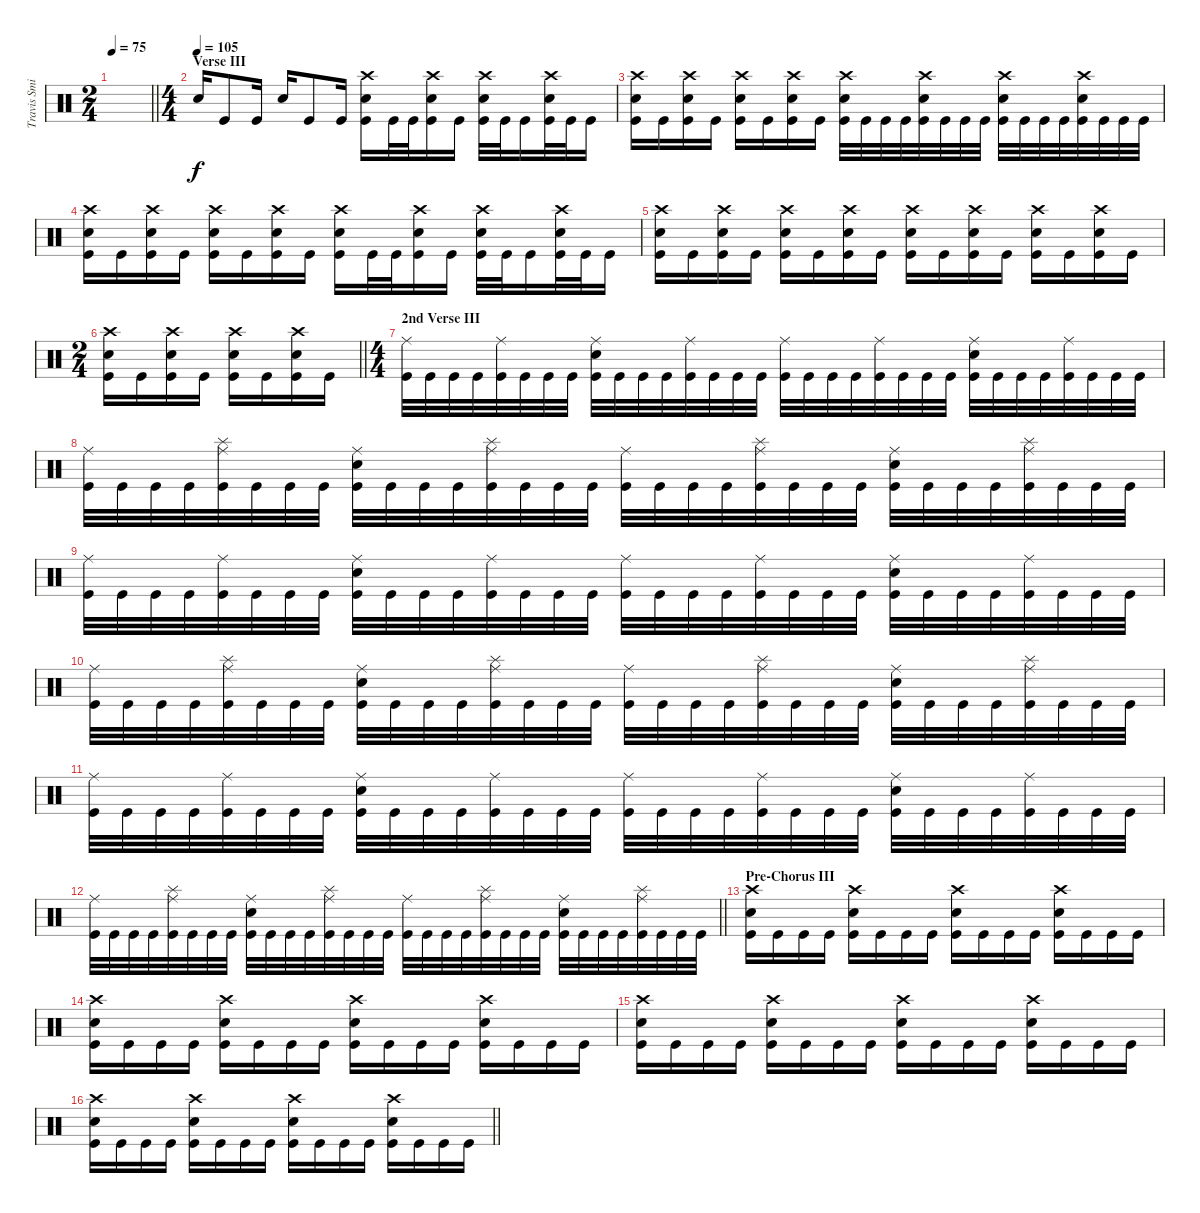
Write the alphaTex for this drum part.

\track ("Travis Smith" "Travis Smi") {instrument percussion}
\staff {score}
\articulation defaults
\ts (2 4)
\tempo 75
\clef neutral
\barLineRight lightlight
\ks c
|
\ts (4 4)
\section ("" "Verse III")
\tempo (105)
"Snare (hit) 2".16 "Kick (hit)".8 "Kick (hit)".16 "Snare (hit) 2".16 "Kick (hit)".8 "Kick (hit)".16 ("Crash high (hit)" "Snare (hit) 2" "Kick (hit)").16 "Kick (hit)".32 "Kick (hit)".32 ("Crash high (hit)" "Snare (hit) 2" "Kick (hit)").16 "Kick (hit)".16 ("Crash high (hit)" "Snare (hit) 2" "Kick (hit)").32 "Kick (hit)".32 "Kick (hit)".16 ("Crash high (hit)" "Snare (hit) 2" "Kick (hit)").32 "Kick (hit)".32 "Kick (hit)".16 |
("Crash high (hit)" "Snare (hit) 2" "Kick (hit)").16 "Kick (hit)".16 ("Crash high (hit)" "Snare (hit) 2" "Kick (hit)").16 "Kick (hit)".16 ("Crash high (hit)" "Snare (hit) 2" "Kick (hit)").16 "Kick (hit)".16 ("Crash high (hit)" "Snare (hit) 2" "Kick (hit)").16 "Kick (hit)".16 ("Crash high (hit)" "Snare (hit) 2" "Kick (hit)").32 "Kick (hit)".32 "Kick (hit)".32 "Kick (hit)".32 ("Crash high (hit)" "Snare (hit) 2" "Kick (hit)").32 "Kick (hit)".32 "Kick (hit)".32 "Kick (hit)".32 ("Crash high (hit)" "Snare (hit) 2" "Kick (hit)").32 "Kick (hit)".32 "Kick (hit)".32 "Kick (hit)".32 ("Crash high (hit)" "Snare (hit) 2" "Kick (hit)").32 "Kick (hit)".32 "Kick (hit)".32 "Kick (hit)".32 |
("Crash high (hit)" "Snare (hit) 2" "Kick (hit)").16 "Kick (hit)".16 ("Crash high (hit)" "Snare (hit) 2" "Kick (hit)").16 "Kick (hit)".16 ("Crash high (hit)" "Snare (hit) 2" "Kick (hit)").16 "Kick (hit)".16 ("Crash high (hit)" "Snare (hit) 2" "Kick (hit)").16 "Kick (hit)".16 ("Crash high (hit)" "Snare (hit) 2" "Kick (hit)").16 "Kick (hit)".32 "Kick (hit)".32 ("Crash high (hit)" "Snare (hit) 2" "Kick (hit)").16 "Kick (hit)".16 ("Crash high (hit)" "Snare (hit) 2" "Kick (hit)").32 "Kick (hit)".32 "Kick (hit)".16 ("Crash high (hit)" "Snare (hit) 2" "Kick (hit)").32 "Kick (hit)".32 "Kick (hit)".16 |
("Crash high (hit)" "Snare (hit) 2" "Kick (hit)").16 "Kick (hit)".16 ("Crash high (hit)" "Snare (hit) 2" "Kick (hit)").16 "Kick (hit)".16 ("Crash high (hit)" "Snare (hit) 2" "Kick (hit)").16 "Kick (hit)".16 ("Crash high (hit)" "Snare (hit) 2" "Kick (hit)").16 "Kick (hit)".16 ("Crash high (hit)" "Snare (hit) 2" "Kick (hit)").16 "Kick (hit)".16 ("Crash high (hit)" "Snare (hit) 2" "Kick (hit)").16 "Kick (hit)".16 ("Crash high (hit)" "Snare (hit) 2" "Kick (hit)").16 "Kick (hit)".16 ("Crash high (hit)" "Snare (hit) 2" "Kick (hit)").16 "Kick (hit)".16 |
\ts (2 4)
\barLineRight lightlight
("Crash high (hit)" "Snare (hit) 2" "Kick (hit)").16 "Kick (hit)".16 ("Crash high (hit)" "Snare (hit) 2" "Kick (hit)").16 "Kick (hit)".16 ("Crash high (hit)" "Snare (hit) 2" "Kick (hit)").16 "Kick (hit)".16 ("Crash high (hit)" "Snare (hit) 2" "Kick (hit)").16 "Kick (hit)".16 |
\ts (4 4)
\section ("" "2nd Verse III")
("Ride (middle)" "Kick (hit)").32 "Kick (hit)".32 "Kick (hit)".32 "Kick (hit)".32 ("Ride (middle)" "Kick (hit)").32 "Kick (hit)".32 "Kick (hit)".32 "Kick (hit)".32 ("Ride (middle)" "Snare (hit) 2" "Kick (hit)").32 "Kick (hit)".32 "Kick (hit)".32 "Kick (hit)".32 ("Ride (middle)" "Kick (hit)").32 "Kick (hit)".32 "Kick (hit)".32 "Kick (hit)".32 ("Ride (middle)" "Kick (hit)").32 "Kick (hit)".32 "Kick (hit)".32 "Kick (hit)".32 ("Ride (middle)" "Kick (hit)").32 "Kick (hit)".32 "Kick (hit)".32 "Kick (hit)".32 ("Ride (middle)" "Snare (hit) 2" "Kick (hit)").32 "Kick (hit)".32 "Kick (hit)".32 "Kick (hit)".32 ("Ride (middle)" "Kick (hit)").32 "Kick (hit)".32 "Kick (hit)".32 "Kick (hit)".32 |
("Ride (middle)" "Kick (hit)").32 "Kick (hit)".32 "Kick (hit)".32 "Kick (hit)".32 ("Ride (middle)" "Splash (hit)" "Kick (hit)").32 "Kick (hit)".32 "Kick (hit)".32 "Kick (hit)".32 ("Ride (middle)" "Snare (hit) 2" "Kick (hit)").32 "Kick (hit)".32 "Kick (hit)".32 "Kick (hit)".32 ("Ride (middle)" "Splash (hit)" "Kick (hit)").32 "Kick (hit)".32 "Kick (hit)".32 "Kick (hit)".32 ("Ride (middle)" "Kick (hit)").32 "Kick (hit)".32 "Kick (hit)".32 "Kick (hit)".32 ("Ride (middle)" "Splash (hit)" "Kick (hit)").32 "Kick (hit)".32 "Kick (hit)".32 "Kick (hit)".32 ("Ride (middle)" "Snare (hit) 2" "Kick (hit)").32 "Kick (hit)".32 "Kick (hit)".32 "Kick (hit)".32 ("Ride (middle)" "Splash (hit)" "Kick (hit)").32 "Kick (hit)".32 "Kick (hit)".32 "Kick (hit)".32 |
("Ride (middle)" "Kick (hit)").32 "Kick (hit)".32 "Kick (hit)".32 "Kick (hit)".32 ("Ride (middle)" "Kick (hit)").32 "Kick (hit)".32 "Kick (hit)".32 "Kick (hit)".32 ("Ride (middle)" "Snare (hit) 2" "Kick (hit)").32 "Kick (hit)".32 "Kick (hit)".32 "Kick (hit)".32 ("Ride (middle)" "Kick (hit)").32 "Kick (hit)".32 "Kick (hit)".32 "Kick (hit)".32 ("Ride (middle)" "Kick (hit)").32 "Kick (hit)".32 "Kick (hit)".32 "Kick (hit)".32 ("Ride (middle)" "Kick (hit)").32 "Kick (hit)".32 "Kick (hit)".32 "Kick (hit)".32 ("Ride (middle)" "Snare (hit) 2" "Kick (hit)").32 "Kick (hit)".32 "Kick (hit)".32 "Kick (hit)".32 ("Ride (middle)" "Kick (hit)").32 "Kick (hit)".32 "Kick (hit)".32 "Kick (hit)".32 |
("Ride (middle)" "Kick (hit)").32 "Kick (hit)".32 "Kick (hit)".32 "Kick (hit)".32 ("Ride (middle)" "Splash (hit)" "Kick (hit)").32 "Kick (hit)".32 "Kick (hit)".32 "Kick (hit)".32 ("Ride (middle)" "Snare (hit) 2" "Kick (hit)").32 "Kick (hit)".32 "Kick (hit)".32 "Kick (hit)".32 ("Ride (middle)" "Splash (hit)" "Kick (hit)").32 "Kick (hit)".32 "Kick (hit)".32 "Kick (hit)".32 ("Ride (middle)" "Kick (hit)").32 "Kick (hit)".32 "Kick (hit)".32 "Kick (hit)".32 ("Ride (middle)" "Splash (hit)" "Kick (hit)").32 "Kick (hit)".32 "Kick (hit)".32 "Kick (hit)".32 ("Ride (middle)" "Snare (hit) 2" "Kick (hit)").32 "Kick (hit)".32 "Kick (hit)".32 "Kick (hit)".32 ("Ride (middle)" "Splash (hit)" "Kick (hit)").32 "Kick (hit)".32 "Kick (hit)".32 "Kick (hit)".32 |
("Ride (middle)" "Kick (hit)").32 "Kick (hit)".32 "Kick (hit)".32 "Kick (hit)".32 ("Ride (middle)" "Kick (hit)").32 "Kick (hit)".32 "Kick (hit)".32 "Kick (hit)".32 ("Ride (middle)" "Snare (hit) 2" "Kick (hit)").32 "Kick (hit)".32 "Kick (hit)".32 "Kick (hit)".32 ("Ride (middle)" "Kick (hit)").32 "Kick (hit)".32 "Kick (hit)".32 "Kick (hit)".32 ("Ride (middle)" "Kick (hit)").32 "Kick (hit)".32 "Kick (hit)".32 "Kick (hit)".32 ("Ride (middle)" "Kick (hit)").32 "Kick (hit)".32 "Kick (hit)".32 "Kick (hit)".32 ("Ride (middle)" "Snare (hit) 2" "Kick (hit)").32 "Kick (hit)".32 "Kick (hit)".32 "Kick (hit)".32 ("Ride (middle)" "Kick (hit)").32 "Kick (hit)".32 "Kick (hit)".32 "Kick (hit)".32 |
\barLineRight lightlight
("Ride (middle)" "Kick (hit)").32 "Kick (hit)".32 "Kick (hit)".32 "Kick (hit)".32 ("Ride (middle)" "Splash (hit)" "Kick (hit)").32 "Kick (hit)".32 "Kick (hit)".32 "Kick (hit)".32 ("Ride (middle)" "Snare (hit) 2" "Kick (hit)").32 "Kick (hit)".32 "Kick (hit)".32 "Kick (hit)".32 ("Ride (middle)" "Splash (hit)" "Kick (hit)").32 "Kick (hit)".32 "Kick (hit)".32 "Kick (hit)".32 ("Ride (middle)" "Kick (hit)").32 "Kick (hit)".32 "Kick (hit)".32 "Kick (hit)".32 ("Ride (middle)" "Splash (hit)" "Kick (hit)").32 "Kick (hit)".32 "Kick (hit)".32 "Kick (hit)".32 ("Ride (middle)" "Snare (hit) 2" "Kick (hit)").32 "Kick (hit)".32 "Kick (hit)".32 "Kick (hit)".32 ("Ride (middle)" "Splash (hit)" "Kick (hit)").32 "Kick (hit)".32 "Kick (hit)".32 "Kick (hit)".32 |
\section ("" "Pre-Chorus III")
("Crash high (hit)" "Snare (hit) 2" "Kick (hit)").16 "Kick (hit)".16 "Kick (hit)".16 "Kick (hit)".16 ("Crash high (hit)" "Snare (hit) 2" "Kick (hit)").16 "Kick (hit)".16 "Kick (hit)".16 "Kick (hit)".16 ("Crash high (hit)" "Snare (hit) 2" "Kick (hit)").16 "Kick (hit)".16 "Kick (hit)".16 "Kick (hit)".16 ("Crash high (hit)" "Snare (hit) 2" "Kick (hit)").16 "Kick (hit)".16 "Kick (hit)".16 "Kick (hit)".16 |
("Crash high (hit)" "Snare (hit) 2" "Kick (hit)").16 "Kick (hit)".16 "Kick (hit)".16 "Kick (hit)".16 ("Crash high (hit)" "Snare (hit) 2" "Kick (hit)").16 "Kick (hit)".16 "Kick (hit)".16 "Kick (hit)".16 ("Crash high (hit)" "Snare (hit) 2" "Kick (hit)").16 "Kick (hit)".16 "Kick (hit)".16 "Kick (hit)".16 ("Crash high (hit)" "Snare (hit) 2" "Kick (hit)").16 "Kick (hit)".16 "Kick (hit)".16 "Kick (hit)".16 |
("Crash high (hit)" "Snare (hit) 2" "Kick (hit)").16 "Kick (hit)".16 "Kick (hit)".16 "Kick (hit)".16 ("Crash high (hit)" "Snare (hit) 2" "Kick (hit)").16 "Kick (hit)".16 "Kick (hit)".16 "Kick (hit)".16 ("Crash high (hit)" "Snare (hit) 2" "Kick (hit)").16 "Kick (hit)".16 "Kick (hit)".16 "Kick (hit)".16 ("Crash high (hit)" "Snare (hit) 2" "Kick (hit)").16 "Kick (hit)".16 "Kick (hit)".16 "Kick (hit)".16 |
\barLineRight lightlight
("Crash high (hit)" "Snare (hit) 2" "Kick (hit)").16 "Kick (hit)".16 "Kick (hit)".16 "Kick (hit)".16 ("Crash high (hit)" "Snare (hit) 2" "Kick (hit)").16 "Kick (hit)".16 "Kick (hit)".16 "Kick (hit)".16 ("Crash high (hit)" "Snare (hit) 2" "Kick (hit)").16 "Kick (hit)".16 "Kick (hit)".16 "Kick (hit)".16 ("Crash high (hit)" "Snare (hit) 2" "Kick (hit)").16 "Kick (hit)".16 "Kick (hit)".16 "Kick (hit)".16
